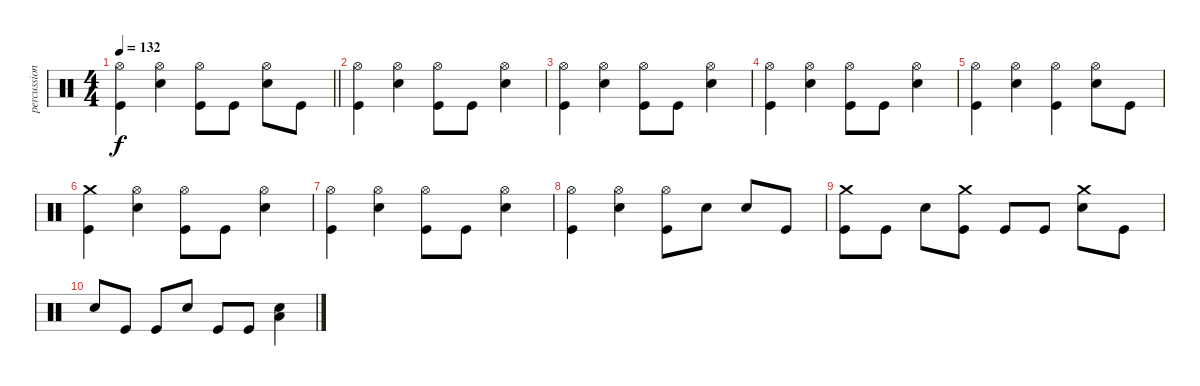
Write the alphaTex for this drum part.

\track ("percussion" "percussion") {instrument percussion}
\staff {score}
\articulation defaults
\ts (4 4)
\tempo 132
\clef neutral
\barLineRight lightlight
\ks c
("Hi-Hat (open)" "Kick (hit)").4{dy f} ("Snare (hit) 2" "Hi-Hat (open)").4 ("Hi-Hat (open)" "Kick (hit)").8 "Kick (hit)".8 ("Snare (hit) 2" "Hi-Hat (open)").8 "Kick (hit)".8 |
("Hi-Hat (open)" "Kick (hit)").4 ("Snare (hit) 2" "Hi-Hat (open)").4 ("Hi-Hat (open)" "Kick (hit)").8 "Kick (hit)".8 ("Snare (hit) 2" "Hi-Hat (open)").4 |
("Hi-Hat (open)" "Kick (hit)").4 ("Snare (hit) 2" "Hi-Hat (open)").4 ("Hi-Hat (open)" "Kick (hit)").8 "Kick (hit)".8 ("Snare (hit) 2" "Hi-Hat (open)").4 |
("Hi-Hat (open)" "Kick (hit)").4 ("Snare (hit) 2" "Hi-Hat (open)").4 ("Hi-Hat (open)" "Kick (hit)").8 "Kick (hit)".8 ("Snare (hit) 2" "Hi-Hat (open)").4 |
("Hi-Hat (open)" "Kick (hit)").4 ("Snare (hit) 2" "Hi-Hat (open)").4 ("Hi-Hat (open)" "Kick (hit)").4 ("Snare (hit) 2" "Hi-Hat (open)").8 "Kick (hit)".8 |
("Crash medium (hit)" "Kick (hit)").4 ("Snare (hit) 2" "Hi-Hat (open)").4 ("Hi-Hat (open)" "Kick (hit)").8 "Kick (hit)".8 ("Snare (hit) 2" "Hi-Hat (open)").4 |
("Hi-Hat (open)" "Kick (hit)").4 ("Snare (hit) 2" "Hi-Hat (open)").4 ("Hi-Hat (open)" "Kick (hit)").8 "Kick (hit)".8 ("Snare (hit) 2" "Hi-Hat (open)").4 |
("Hi-Hat (open)" "Kick (hit)").4 ("Snare (hit) 2" "Hi-Hat (open)").4 ("Hi-Hat (open)" "Kick (hit)").8 "Snare (hit) 2".8 "Snare (hit) 2".8 "Kick (hit)".8 |
("Crash medium (hit)" "Kick (hit)").8 "Kick (hit)".8 "Snare (hit) 2".8 ("Crash medium (hit)" "Kick (hit)").8 "Kick (hit)".8 "Kick (hit)".8 ("Crash medium (hit)" "Snare (hit) 2").8 "Kick (hit)".8 |
"Snare (hit) 2".8 "Kick (hit)".8 "Kick (hit)".8 "Snare (hit) 2".8 "Kick (hit)".8 "Kick (hit)".8 ("Low Tom (hit)" "Snare (hit) 2").4
